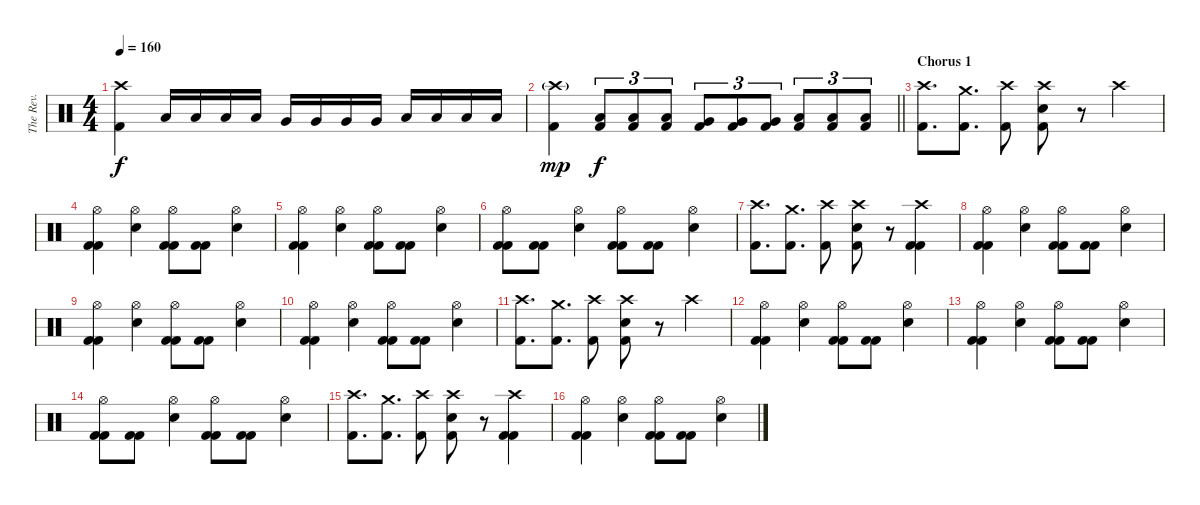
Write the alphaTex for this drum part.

\track ("The Rev." "The Rev.") {instrument percussion}
\staff {score}
\articulation defaults
\ts (4 4)
\tempo 160
\clef neutral
\ks c
("Crash high (hit)" "Kick (hit) 2").4{dy f} "Low Tom (hit)".16 "Low Tom (hit)".16 "Low Tom (hit)".16 "Low Tom (hit)".16 "Very Low Tom (hit)".16 "Very Low Tom (hit)".16 "Very Low Tom (hit)".16 "Very Low Tom (hit)".16 "Low Floor Tom (hit)".16 "Low Floor Tom (hit)".16 "Low Floor Tom (hit)".16 "Low Floor Tom (hit)".16 |
\barLineRight lightlight
("Crash high (hit)"{g} "Kick (hit) 2").4{dy mp} ("Low Tom (hit)" "Kick (hit) 2").8{tu (3 2) dy f} ("Low Tom (hit)" "Kick (hit) 2").8{tu (3 2)} ("Low Tom (hit)" "Kick (hit) 2").8{tu (3 2)} ("Very Low Tom (hit)" "Kick (hit) 2").8{tu (3 2)} ("Very Low Tom (hit)" "Kick (hit) 2").8{tu (3 2)} ("Very Low Tom (hit)" "Kick (hit) 2").8{tu (3 2)} ("Low Floor Tom (hit)" "Kick (hit) 2").8{tu (3 2)} ("Low Floor Tom (hit)" "Kick (hit) 2").8{tu (3 2)} ("Low Floor Tom (hit)" "Kick (hit) 2").8{tu (3 2)} |
\section ("" "Chorus 1")
("Crash high (hit)" "Kick (hit) 2").8{d} ("Crash medium (hit)" "Kick (hit) 2").8{d} ("Crash high (hit)" "Kick (hit) 2").8 ("Crash high (hit)" "Electric Snare (hit)" "Kick (hit) 2").8 r.8 "Crash high (hit)".4 |
("Hi-Hat (open)" "Kick (hit) 2" "Kick (hit) 2").4 ("Hi-Hat (open)" "Electric Snare (hit)").4 ("Hi-Hat (open)" "Kick (hit) 2" "Kick (hit) 2").8 ("Kick (hit) 2" "Kick (hit) 2").8 ("Hi-Hat (open)" "Electric Snare (hit)").4 |
("Hi-Hat (open)" "Kick (hit) 2" "Kick (hit) 2").4 ("Hi-Hat (open)" "Electric Snare (hit)").4 ("Hi-Hat (open)" "Kick (hit) 2" "Kick (hit) 2").8 ("Kick (hit) 2" "Kick (hit) 2").8 ("Hi-Hat (open)" "Electric Snare (hit)").4 |
("Hi-Hat (open)" "Kick (hit) 2" "Kick (hit) 2").8 ("Kick (hit) 2" "Kick (hit) 2").8 ("Hi-Hat (open)" "Electric Snare (hit)").4 ("Hi-Hat (open)" "Kick (hit) 2" "Kick (hit) 2").8 ("Kick (hit) 2" "Kick (hit) 2").8 ("Hi-Hat (open)" "Electric Snare (hit)").4 |
("Crash high (hit)" "Kick (hit) 2").8{d} ("Crash medium (hit)" "Kick (hit) 2").8{d} ("Crash high (hit)" "Kick (hit) 2").8 ("Crash high (hit)" "Electric Snare (hit)" "Kick (hit) 2").8 r.8 ("Crash high (hit)" "Kick (hit) 2" "Kick (hit) 2").4 |
("Hi-Hat (open)" "Kick (hit) 2" "Kick (hit) 2").4 ("Hi-Hat (open)" "Electric Snare (hit)").4 ("Hi-Hat (open)" "Kick (hit) 2" "Kick (hit) 2").8 ("Kick (hit) 2" "Kick (hit) 2").8 ("Hi-Hat (open)" "Electric Snare (hit)").4 |
("Hi-Hat (open)" "Kick (hit) 2" "Kick (hit) 2").4 ("Hi-Hat (open)" "Electric Snare (hit)").4 ("Hi-Hat (open)" "Kick (hit) 2" "Kick (hit) 2").8 ("Kick (hit) 2" "Kick (hit) 2").8 ("Hi-Hat (open)" "Electric Snare (hit)").4 |
("Hi-Hat (open)" "Kick (hit) 2" "Kick (hit) 2").4 ("Hi-Hat (open)" "Electric Snare (hit)").4 ("Hi-Hat (open)" "Kick (hit) 2" "Kick (hit) 2").8 ("Kick (hit) 2" "Kick (hit) 2").8 ("Hi-Hat (open)" "Electric Snare (hit)").4 |
("Crash high (hit)" "Kick (hit) 2").8{d} ("Crash medium (hit)" "Kick (hit) 2").8{d} ("Crash high (hit)" "Kick (hit) 2").8 ("Crash high (hit)" "Electric Snare (hit)" "Kick (hit) 2").8 r.8 "Crash high (hit)".4 |
("Hi-Hat (open)" "Kick (hit) 2" "Kick (hit) 2").4 ("Hi-Hat (open)" "Electric Snare (hit)").4 ("Hi-Hat (open)" "Kick (hit) 2" "Kick (hit) 2").8 ("Kick (hit) 2" "Kick (hit) 2").8 ("Hi-Hat (open)" "Electric Snare (hit)").4 |
("Hi-Hat (open)" "Kick (hit) 2" "Kick (hit) 2").4 ("Hi-Hat (open)" "Electric Snare (hit)").4 ("Hi-Hat (open)" "Kick (hit) 2" "Kick (hit) 2").8 ("Kick (hit) 2" "Kick (hit) 2").8 ("Hi-Hat (open)" "Electric Snare (hit)").4 |
("Hi-Hat (open)" "Kick (hit) 2" "Kick (hit) 2").8 ("Kick (hit) 2" "Kick (hit) 2").8 ("Hi-Hat (open)" "Electric Snare (hit)").4 ("Hi-Hat (open)" "Kick (hit) 2" "Kick (hit) 2").8 ("Kick (hit) 2" "Kick (hit) 2").8 ("Hi-Hat (open)" "Electric Snare (hit)").4 |
("Crash high (hit)" "Kick (hit) 2").8{d} ("Crash medium (hit)" "Kick (hit) 2").8{d} ("Crash high (hit)" "Kick (hit) 2").8 ("Crash high (hit)" "Electric Snare (hit)" "Kick (hit) 2").8 r.8 ("Crash high (hit)" "Kick (hit) 2" "Kick (hit) 2").4 |
("Hi-Hat (open)" "Kick (hit) 2" "Kick (hit) 2").4 ("Hi-Hat (open)" "Electric Snare (hit)").4 ("Hi-Hat (open)" "Kick (hit) 2" "Kick (hit) 2").8 ("Kick (hit) 2" "Kick (hit) 2").8 ("Hi-Hat (open)" "Electric Snare (hit)").4
